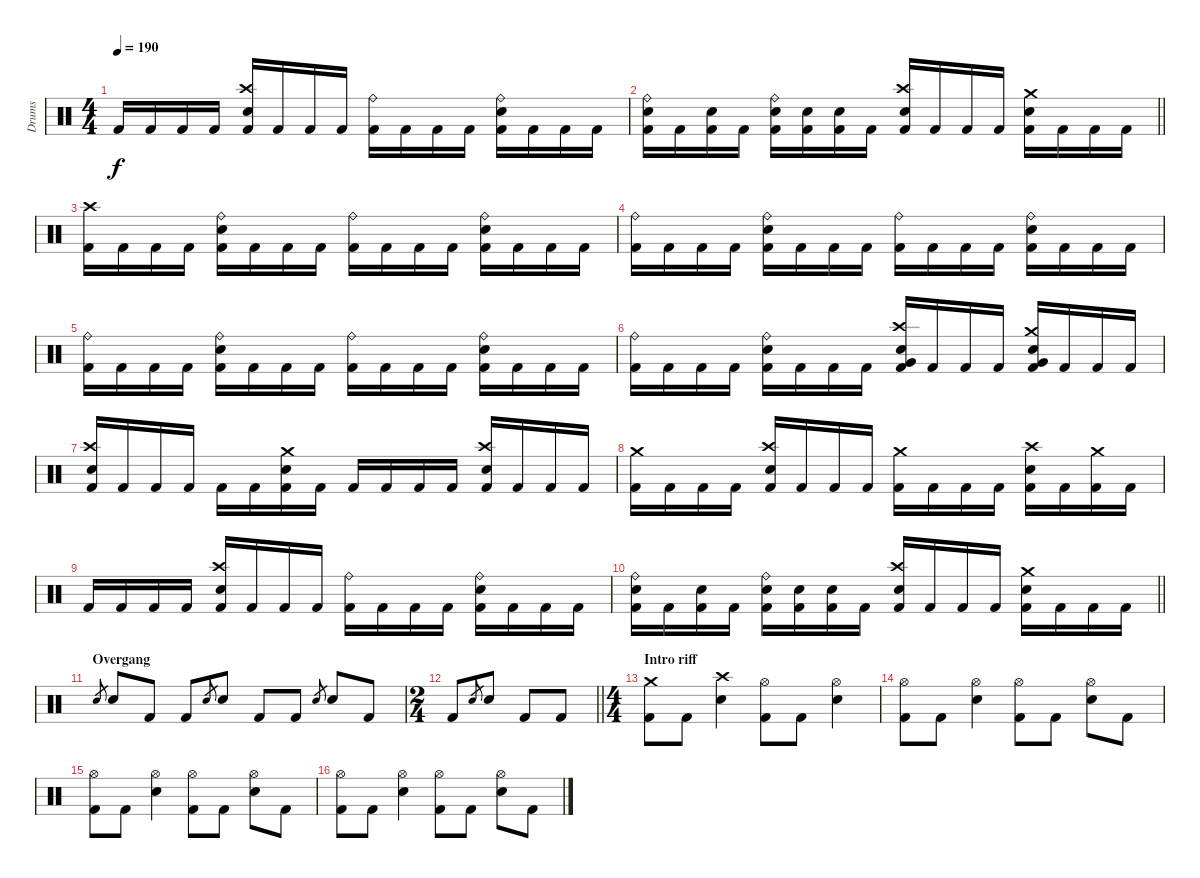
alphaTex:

\track ("Drums" "Drums") {instrument percussion}
\staff {score}
\articulation defaults
\ts (4 4)
\tempo 190
\clef neutral
\ks c "Kick (hit) 2".16{dy f} "Kick (hit) 2".16 "Kick (hit) 2".16 "Kick (hit) 2".16
("Crash high (hit)" "Snare (hit) 2" "Kick (hit) 2").16 "Kick (hit) 2".16 "Kick (hit) 2".16 "Kick (hit) 2".16 ("Ride (bell)" "Kick (hit) 2").16 "Kick (hit) 2".16 "Kick (hit) 2".16 "Kick (hit) 2".16 ("Ride (bell)" "Snare (hit) 2" "Kick (hit) 2").16 "Kick (hit) 2".16 "Kick (hit) 2".16 "Kick (hit) 2".16 |
\barLineRight lightlight
("Ride (bell)" "Snare (hit) 2" "Kick (hit) 2").16 "Kick (hit) 2".16 ("Snare (hit) 2" "Kick (hit) 2").16 "Kick (hit) 2".16 ("Ride (bell)" "Snare (hit) 2" "Kick (hit) 2").16 ("Snare (hit) 2" "Kick (hit) 2").16 ("Snare (hit) 2" "Kick (hit) 2").16 "Kick (hit) 2".16 ("Crash high (hit)" "Snare (hit) 2" "Kick (hit) 2").16 "Kick (hit) 2".16 "Kick (hit) 2".16 "Kick (hit) 2".16 ("Crash medium (hit)" "Snare (hit) 2" "Kick (hit) 2").16 "Kick (hit) 2".16 "Kick (hit) 2".16 "Kick (hit) 2".16 |
("Crash high (hit)" "Kick (hit) 2").16 "Kick (hit) 2".16 "Kick (hit) 2".16 "Kick (hit) 2".16 ("Ride (bell)" "Snare (hit) 2" "Kick (hit) 2").16 "Kick (hit) 2".16 "Kick (hit) 2".16 "Kick (hit) 2".16 ("Ride (bell)" "Kick (hit) 2").16 "Kick (hit) 2".16 "Kick (hit) 2".16 "Kick (hit) 2".16 ("Ride (bell)" "Snare (hit) 2" "Kick (hit) 2").16 "Kick (hit) 2".16 "Kick (hit) 2".16 "Kick (hit) 2".16 |
("Ride (bell)" "Kick (hit) 2").16 "Kick (hit) 2".16 "Kick (hit) 2".16 "Kick (hit) 2".16 ("Ride (bell)" "Snare (hit) 2" "Kick (hit) 2").16 "Kick (hit) 2".16 "Kick (hit) 2".16 "Kick (hit) 2".16 ("Ride (bell)" "Kick (hit) 2").16 "Kick (hit) 2".16 "Kick (hit) 2".16 "Kick (hit) 2".16 ("Ride (bell)" "Snare (hit) 2" "Kick (hit) 2").16 "Kick (hit) 2".16 "Kick (hit) 2".16 "Kick (hit) 2".16 |
("Ride (bell)" "Kick (hit) 2").16 "Kick (hit) 2".16 "Kick (hit) 2".16 "Kick (hit) 2".16 ("Ride (bell)" "Snare (hit) 2" "Kick (hit) 2").16 "Kick (hit) 2".16 "Kick (hit) 2".16 "Kick (hit) 2".16 ("Ride (bell)" "Kick (hit) 2").16 "Kick (hit) 2".16 "Kick (hit) 2".16 "Kick (hit) 2".16 ("Ride (bell)" "Snare (hit) 2" "Kick (hit) 2").16 "Kick (hit) 2".16 "Kick (hit) 2".16 "Kick (hit) 2".16 |
("Ride (bell)" "Kick (hit) 2").16 "Kick (hit) 2".16 "Kick (hit) 2".16 "Kick (hit) 2".16 ("Ride (bell)" "Snare (hit) 2" "Kick (hit) 2").16 "Kick (hit) 2".16 "Kick (hit) 2".16 "Kick (hit) 2".16 ("Crash high (hit)" "Very Low Tom (hit)" "Snare (hit) 2" "Kick (hit) 2").16 "Kick (hit) 2".16 "Kick (hit) 2".16 "Kick (hit) 2".16 ("Crash medium (hit)" "Very Low Tom (hit)" "Snare (hit) 2" "Kick (hit) 2").16 "Kick (hit) 2".16 "Kick (hit) 2".16 "Kick (hit) 2".16 |
("Crash high (hit)" "Snare (hit) 2" "Kick (hit) 2").16 "Kick (hit) 2".16 "Kick (hit) 2".16 "Kick (hit) 2".16 "Kick (hit) 2".16 "Kick (hit) 2".16 ("Crash medium (hit)" "Snare (hit) 2" "Kick (hit) 2").16 "Kick (hit) 2".16 "Kick (hit) 2".16 "Kick (hit) 2".16 "Kick (hit) 2".16 "Kick (hit) 2".16 ("Crash high (hit)" "Snare (hit) 2" "Kick (hit) 2").16 "Kick (hit) 2".16 "Kick (hit) 2".16 "Kick (hit) 2".16 |
("Crash medium (hit)" "Kick (hit) 2").16 "Kick (hit) 2".16 "Kick (hit) 2".16 "Kick (hit) 2".16 ("Crash high (hit)" "Snare (hit) 2" "Kick (hit) 2").16 "Kick (hit) 2".16 "Kick (hit) 2".16 "Kick (hit) 2".16 ("Crash medium (hit)" "Kick (hit) 2").16 "Kick (hit) 2".16 "Kick (hit) 2".16 "Kick (hit) 2".16 ("Crash high (hit)" "Snare (hit) 2" "Kick (hit) 2").16 "Kick (hit) 2".16 ("Crash medium (hit)" "Kick (hit) 2").16 "Kick (hit) 2".16 |
"Kick (hit) 2".16 "Kick (hit) 2".16 "Kick (hit) 2".16 "Kick (hit) 2".16 ("Crash high (hit)" "Snare (hit) 2" "Kick (hit) 2").16 "Kick (hit) 2".16 "Kick (hit) 2".16 "Kick (hit) 2".16 ("Ride (bell)" "Kick (hit) 2").16 "Kick (hit) 2".16 "Kick (hit) 2".16 "Kick (hit) 2".16 ("Ride (bell)" "Snare (hit) 2" "Kick (hit) 2").16 "Kick (hit) 2".16 "Kick (hit) 2".16 "Kick (hit) 2".16 |
\barLineRight lightlight
("Ride (bell)" "Snare (hit) 2" "Kick (hit) 2").16 "Kick (hit) 2".16 ("Snare (hit) 2" "Kick (hit) 2").16 "Kick (hit) 2".16 ("Ride (bell)" "Snare (hit) 2" "Kick (hit) 2").16 ("Snare (hit) 2" "Kick (hit) 2").16 ("Snare (hit) 2" "Kick (hit) 2").16 "Kick (hit) 2".16 ("Crash high (hit)" "Snare (hit) 2" "Kick (hit) 2").16 "Kick (hit) 2".16 "Kick (hit) 2".16 "Kick (hit) 2".16 ("Crash medium (hit)" "Snare (hit) 2" "Kick (hit) 2").16 "Kick (hit) 2".16 "Kick (hit) 2".16 "Kick (hit) 2".16 |
\section ("" "Overgang")
"Snare (hit) 2".8{gr} "Snare (hit) 2".8 "Kick (hit) 2".8 "Kick (hit) 2".8 "Snare (hit) 2".8{gr} "Snare (hit) 2".8 "Kick (hit) 2".8 "Kick (hit) 2".8 "Snare (hit) 2".8{gr} "Snare (hit) 2".8 "Kick (hit) 2".8 |
\ts (2 4)
\barLineRight lightlight "Kick (hit) 2".8 "Snare (hit) 2".8{gr} "Snare (hit) 2".8 "Kick (hit) 2".8 "Kick (hit) 2".8
|
\ts (4 4)
\section ("" "Intro riff")
("Crash medium (hit)" "Kick (hit) 2").8 "Kick (hit) 2".8 ("Crash high (hit)" "Snare (hit) 2").4 ("Hi-Hat (open)" "Kick (hit) 2").8 "Kick (hit) 2".8 ("Hi-Hat (open)" "Snare (hit) 2").4 |
("Hi-Hat (open)" "Kick (hit) 2").8 "Kick (hit) 2".8 ("Hi-Hat (open)" "Snare (hit) 2").4 ("Hi-Hat (open)" "Kick (hit) 2").8 "Kick (hit) 2".8 ("Hi-Hat (open)" "Snare (hit) 2").8 "Kick (hit) 2".8 |
("Hi-Hat (open)" "Kick (hit) 2").8 "Kick (hit) 2".8 ("Hi-Hat (open)" "Snare (hit) 2").4 ("Hi-Hat (open)" "Kick (hit) 2").8 "Kick (hit) 2".8 ("Hi-Hat (open)" "Snare (hit) 2").8 "Kick (hit) 2".8 |
("Hi-Hat (open)" "Kick (hit) 2").8 "Kick (hit) 2".8 ("Hi-Hat (open)" "Snare (hit) 2").4 ("Hi-Hat (open)" "Kick (hit) 2").8 "Kick (hit) 2".8 ("Hi-Hat (open)" "Snare (hit) 2").8 "Kick (hit) 2".8
